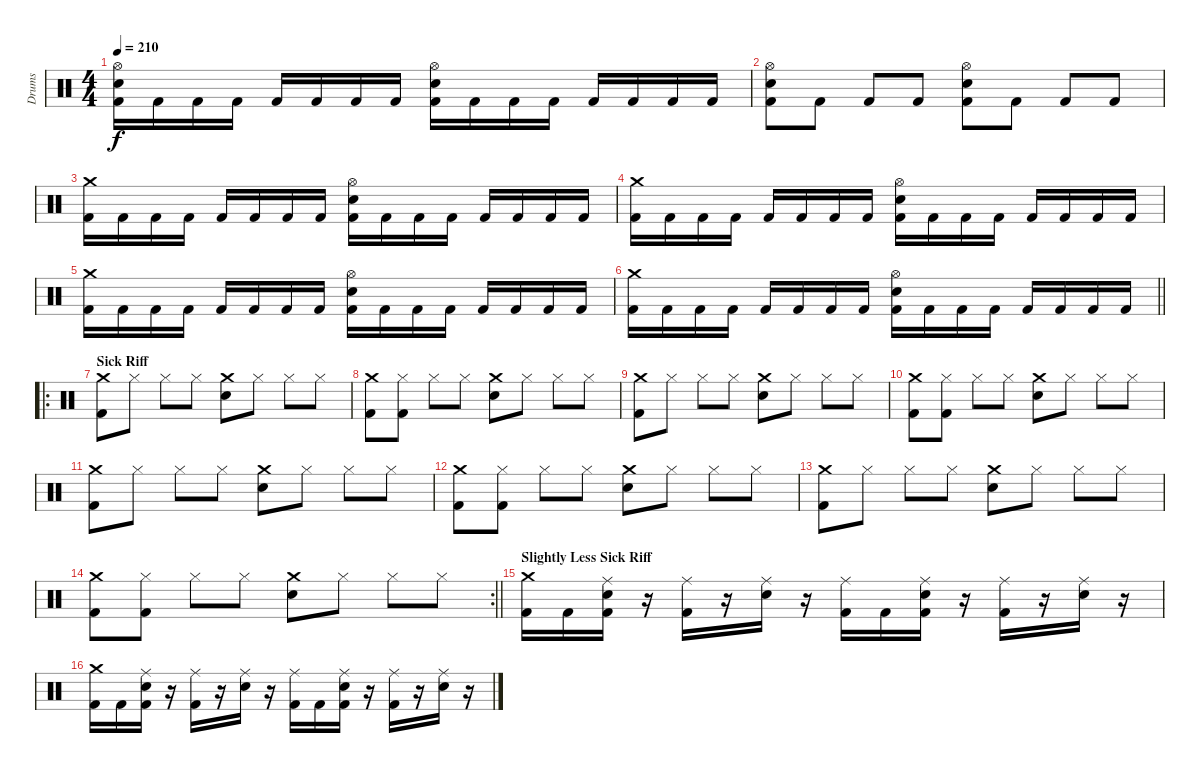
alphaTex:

\track ("Drums" "Drums") {instrument percussion}
\staff {score}
\articulation defaults
\ts (4 4)
\tempo 210
\clef neutral
\ks c
("Hi-Hat (open)" "Electric Snare (hit)" "Kick (hit) 2").16{dy f} "Kick (hit) 2".16 "Kick (hit) 2".16 "Kick (hit) 2".16 "Kick (hit) 2".16 "Kick (hit) 2".16 "Kick (hit) 2".16 "Kick (hit) 2".16 ("Hi-Hat (open)" "Electric Snare (hit)" "Kick (hit) 2").16 "Kick (hit) 2".16 "Kick (hit) 2".16 "Kick (hit) 2".16 "Kick (hit) 2".16 "Kick (hit) 2".16 "Kick (hit) 2".16 "Kick (hit) 2".16 |
("Hi-Hat (open)" "Electric Snare (hit)" "Kick (hit) 2").8 "Kick (hit) 2".8 "Kick (hit) 2".8 "Kick (hit) 2".8 ("Hi-Hat (open)" "Electric Snare (hit)" "Kick (hit) 2").8 "Kick (hit) 2".8 "Kick (hit) 2".8 "Kick (hit) 2".8 |
("Crash medium (hit)" "Kick (hit) 2").16 "Kick (hit) 2".16 "Kick (hit) 2".16 "Kick (hit) 2".16 "Kick (hit) 2".16 "Kick (hit) 2".16 "Kick (hit) 2".16 "Kick (hit) 2".16 ("Hi-Hat (open)" "Electric Snare (hit)" "Kick (hit) 2").16 "Kick (hit) 2".16 "Kick (hit) 2".16 "Kick (hit) 2".16 "Kick (hit) 2".16 "Kick (hit) 2".16 "Kick (hit) 2".16 "Kick (hit) 2".16 |
("Crash medium (hit)" "Kick (hit) 2").16 "Kick (hit) 2".16 "Kick (hit) 2".16 "Kick (hit) 2".16 "Kick (hit) 2".16 "Kick (hit) 2".16 "Kick (hit) 2".16 "Kick (hit) 2".16 ("Hi-Hat (open)" "Electric Snare (hit)" "Kick (hit) 2").16 "Kick (hit) 2".16 "Kick (hit) 2".16 "Kick (hit) 2".16 "Kick (hit) 2".16 "Kick (hit) 2".16 "Kick (hit) 2".16 "Kick (hit) 2".16 |
("Crash medium (hit)" "Kick (hit) 2").16 "Kick (hit) 2".16 "Kick (hit) 2".16 "Kick (hit) 2".16 "Kick (hit) 2".16 "Kick (hit) 2".16 "Kick (hit) 2".16 "Kick (hit) 2".16 ("Hi-Hat (open)" "Electric Snare (hit)" "Kick (hit) 2").16 "Kick (hit) 2".16 "Kick (hit) 2".16 "Kick (hit) 2".16 "Kick (hit) 2".16 "Kick (hit) 2".16 "Kick (hit) 2".16 "Kick (hit) 2".16 |
\barLineRight lightlight
("Crash medium (hit)" "Kick (hit) 2").16 "Kick (hit) 2".16 "Kick (hit) 2".16 "Kick (hit) 2".16 "Kick (hit) 2".16 "Kick (hit) 2".16 "Kick (hit) 2".16 "Kick (hit) 2".16 ("Hi-Hat (open)" "Electric Snare (hit)" "Kick (hit) 2").16 "Kick (hit) 2".16 "Kick (hit) 2".16 "Kick (hit) 2".16 "Kick (hit) 2".16 "Kick (hit) 2".16 "Kick (hit) 2".16 "Kick (hit) 2".16 |
\ro
\section ("" "Sick Riff")
("Crash medium (hit)" "Kick (hit) 2").8 "Hi-Hat (closed)".8 "Hi-Hat (closed)".8 "Hi-Hat (closed)".8 ("Crash medium (hit)" "Electric Snare (hit)").8 "Hi-Hat (closed)".8 "Hi-Hat (closed)".8 "Hi-Hat (closed)".8 |
("Crash medium (hit)" "Kick (hit) 2").8 ("Hi-Hat (closed)" "Kick (hit) 2").8 "Hi-Hat (closed)".8 "Hi-Hat (closed)".8 ("Crash medium (hit)" "Electric Snare (hit)").8 "Hi-Hat (closed)".8 "Hi-Hat (closed)".8 "Hi-Hat (closed)".8 |
("Crash medium (hit)" "Kick (hit) 2").8 "Hi-Hat (closed)".8 "Hi-Hat (closed)".8 "Hi-Hat (closed)".8 ("Crash medium (hit)" "Electric Snare (hit)").8 "Hi-Hat (closed)".8 "Hi-Hat (closed)".8 "Hi-Hat (closed)".8 |
("Crash medium (hit)" "Kick (hit) 2").8 ("Hi-Hat (closed)" "Kick (hit) 2").8 "Hi-Hat (closed)".8 "Hi-Hat (closed)".8 ("Crash medium (hit)" "Electric Snare (hit)").8 "Hi-Hat (closed)".8 "Hi-Hat (closed)".8 "Hi-Hat (closed)".8 |
("Crash medium (hit)" "Kick (hit) 2").8 "Hi-Hat (closed)".8 "Hi-Hat (closed)".8 "Hi-Hat (closed)".8 ("Crash medium (hit)" "Electric Snare (hit)").8 "Hi-Hat (closed)".8 "Hi-Hat (closed)".8 "Hi-Hat (closed)".8 |
("Crash medium (hit)" "Kick (hit) 2").8 ("Hi-Hat (closed)" "Kick (hit) 2").8 "Hi-Hat (closed)".8 "Hi-Hat (closed)".8 ("Crash medium (hit)" "Electric Snare (hit)").8 "Hi-Hat (closed)".8 "Hi-Hat (closed)".8 "Hi-Hat (closed)".8 |
("Crash medium (hit)" "Kick (hit) 2").8 "Hi-Hat (closed)".8 "Hi-Hat (closed)".8 "Hi-Hat (closed)".8 ("Crash medium (hit)" "Electric Snare (hit)").8 "Hi-Hat (closed)".8 "Hi-Hat (closed)".8 "Hi-Hat (closed)".8 |
\rc 2
\barLineRight lightlight
("Crash medium (hit)" "Kick (hit) 2").8 ("Hi-Hat (closed)" "Kick (hit) 2").8 "Hi-Hat (closed)".8 "Hi-Hat (closed)".8 ("Crash medium (hit)" "Electric Snare (hit)").8 "Hi-Hat (closed)".8 "Hi-Hat (closed)".8 "Hi-Hat (closed)".8 |
\section ("" "Slightly Less Sick Riff")
("Crash medium (hit)" "Kick (hit) 2").16 "Kick (hit) 2".16 ("Ride (middle)" "Electric Snare (hit)" "Kick (hit) 2").16 r.16 ("Ride (middle)" "Kick (hit) 2").16 r.16 ("Ride (middle)" "Electric Snare (hit)").16 r.16 ("Ride (middle)" "Kick (hit) 2").16 "Kick (hit) 2".16 ("Ride (middle)" "Electric Snare (hit)" "Kick (hit) 2").16 r.16 ("Ride (middle)" "Kick (hit) 2").16 r.16 ("Ride (middle)" "Electric Snare (hit)").16 r.16 |
("Crash medium (hit)" "Kick (hit) 2").16 "Kick (hit) 2".16 ("Ride (middle)" "Electric Snare (hit)" "Kick (hit) 2").16 r.16 ("Ride (middle)" "Kick (hit) 2").16 r.16 ("Ride (middle)" "Electric Snare (hit)").16 r.16 ("Ride (middle)" "Kick (hit) 2").16 "Kick (hit) 2".16 ("Ride (middle)" "Electric Snare (hit)" "Kick (hit) 2").16 r.16 ("Ride (middle)" "Kick (hit) 2").16 r.16 ("Ride (middle)" "Electric Snare (hit)").16 r.16
